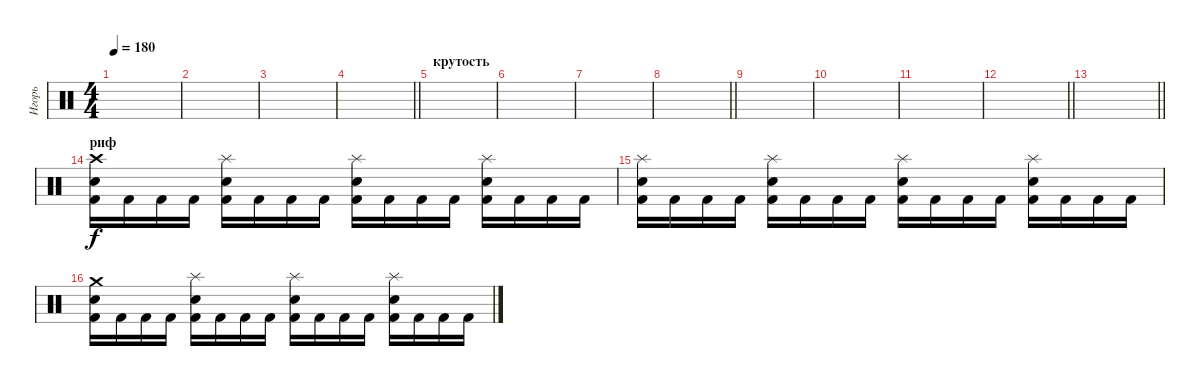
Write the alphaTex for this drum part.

\track ("Игорь" "Игорь") {instrument percussion}
\staff {score}
\articulation defaults
\ts (4 4)
\tempo 180
\clef neutral
\ks c
|
|
|
\barLineRight lightlight
|
\section ("" "крутость")
|
|
|
\barLineRight lightlight
|
|
|
|
\barLineRight lightlight
|
\barLineRight lightlight
|
\section ("" "риф")
("Crash high (hit)" "Electric Snare (hit)" "Kick (hit) 2").16 "Kick (hit) 2".16 "Kick (hit) 2".16 "Kick (hit) 2".16 ("Splash (hit)" "Electric Snare (hit)" "Kick (hit) 2").16 "Kick (hit) 2".16 "Kick (hit) 2".16 "Kick (hit) 2".16 ("Splash (hit)" "Electric Snare (hit)" "Kick (hit) 2").16 "Kick (hit) 2".16 "Kick (hit) 2".16 "Kick (hit) 2".16 ("Splash (hit)" "Electric Snare (hit)" "Kick (hit) 2").16 "Kick (hit) 2".16 "Kick (hit) 2".16 "Kick (hit) 2".16 |
("Splash (hit)" "Electric Snare (hit)" "Kick (hit) 2").16 "Kick (hit) 2".16 "Kick (hit) 2".16 "Kick (hit) 2".16 ("Splash (hit)" "Electric Snare (hit)" "Kick (hit) 2").16 "Kick (hit) 2".16 "Kick (hit) 2".16 "Kick (hit) 2".16 ("Splash (hit)" "Electric Snare (hit)" "Kick (hit) 2").16 "Kick (hit) 2".16 "Kick (hit) 2".16 "Kick (hit) 2".16 ("Splash (hit)" "Electric Snare (hit)" "Kick (hit) 2").16 "Kick (hit) 2".16 "Kick (hit) 2".16 "Kick (hit) 2".16 |
("Crash medium (hit)" "Electric Snare (hit)" "Kick (hit) 2").16 "Kick (hit) 2".16 "Kick (hit) 2".16 "Kick (hit) 2".16 ("Splash (hit)" "Electric Snare (hit)" "Kick (hit) 2").16 "Kick (hit) 2".16 "Kick (hit) 2".16 "Kick (hit) 2".16 ("Splash (hit)" "Electric Snare (hit)" "Kick (hit) 2").16 "Kick (hit) 2".16 "Kick (hit) 2".16 "Kick (hit) 2".16 ("Splash (hit)" "Electric Snare (hit)" "Kick (hit) 2").16 "Kick (hit) 2".16 "Kick (hit) 2".16 "Kick (hit) 2".16
